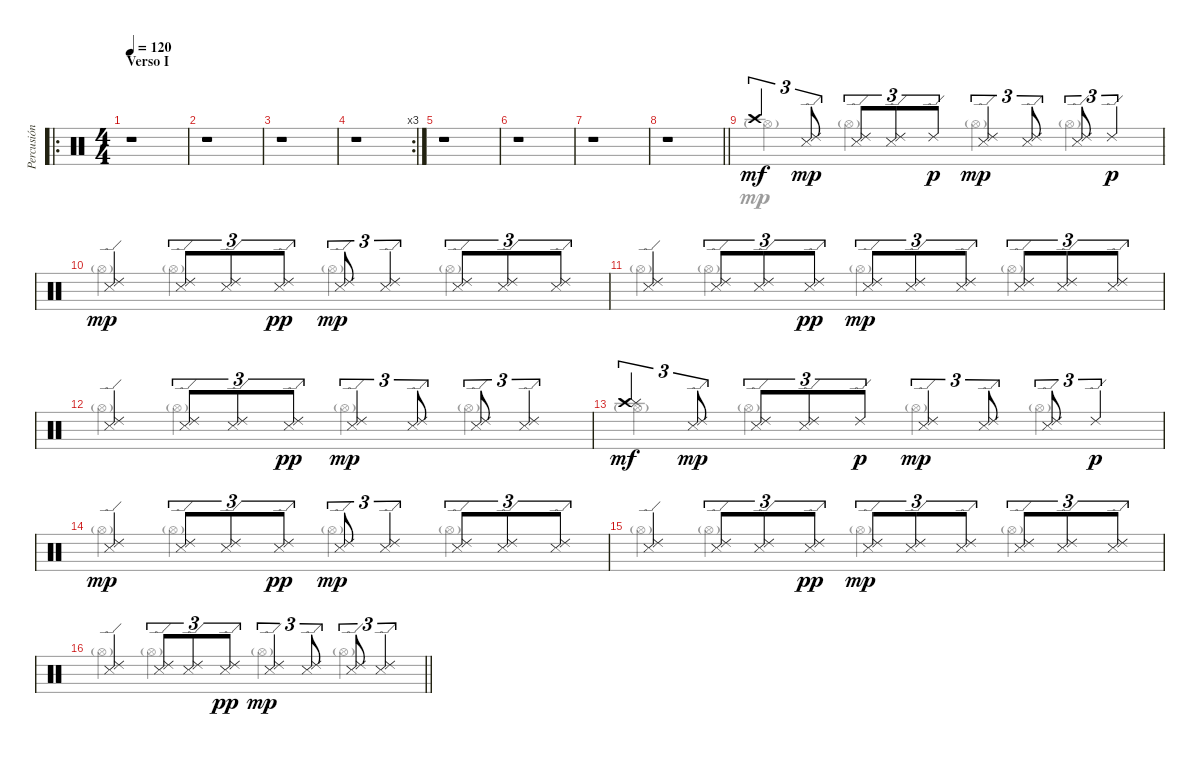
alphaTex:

\track ("Percusión" "Percusión") {instrument percussion}
\staff {score}
\articulation defaults
\voice
\ro
\ts (4 4)
\section ("" "Verso I")
\tempo 120
\clef neutral
\ks c
r.1{dy mf} |
r.1 |
r.1 |
\rc 3
r.1 |
r.1 |
r.1 |
r.1 |
\barLineRight lightlight
r.1 |
"Crash high (hit)".4{tu (3 2)} ("Ride (edge) 2" "Metronome (hit)").8{tu (3 2) dy mp} ("Ride (edge) 2" "Metronome (hit)").8{tu (3 2)} ("Ride (edge) 2" "Metronome (hit)").8{tu (3 2)} "Ride (edge) 2".8{tu (3 2) dy p} ("Ride (edge) 2" "Metronome (hit)").4{tu (3 2) dy mp} ("Ride (edge) 2" "Metronome (hit)").8{tu (3 2)} ("Ride (edge) 2" "Metronome (hit)").8{tu (3 2)} "Ride (edge) 2".4{tu (3 2) dy p} |
("Ride (edge) 2" "Metronome (hit)").4{dy mp} ("Ride (edge) 2" "Metronome (hit)").8{tu (3 2)} ("Ride (edge) 2" "Metronome (hit)").8{tu (3 2)} ("Ride (edge) 2" "Metronome (hit)").8{tu (3 2) dy pp} ("Ride (edge) 2" "Metronome (hit)").8{tu (3 2) dy mp} ("Ride (edge) 2" "Metronome (hit)").4{tu (3 2)} ("Ride (edge) 2" "Metronome (hit)").8{tu (3 2)} ("Ride (edge) 2" "Metronome (hit)").8{tu (3 2)} ("Ride (edge) 2" "Metronome (hit)").8{tu (3 2)} |
("Ride (edge) 2" "Metronome (hit)").4 ("Ride (edge) 2" "Metronome (hit)").8{tu (3 2)} ("Ride (edge) 2" "Metronome (hit)").8{tu (3 2)} ("Ride (edge) 2" "Metronome (hit)").8{tu (3 2) dy pp} ("Ride (edge) 2" "Metronome (hit)").8{tu (3 2) dy mp} ("Ride (edge) 2" "Metronome (hit)").8{tu (3 2)} ("Ride (edge) 2" "Metronome (hit)").8{tu (3 2)} ("Ride (edge) 2" "Metronome (hit)").8{tu (3 2)} ("Ride (edge) 2" "Metronome (hit)").8{tu (3 2)} ("Ride (edge) 2" "Metronome (hit)").8{tu (3 2)} |
("Ride (edge) 2" "Metronome (hit)").4 ("Ride (edge) 2" "Metronome (hit)").8{tu (3 2)} ("Ride (edge) 2" "Metronome (hit)").8{tu (3 2)} ("Ride (edge) 2" "Metronome (hit)").8{tu (3 2) dy pp} ("Ride (edge) 2" "Metronome (hit)").4{tu (3 2) dy mp} ("Ride (edge) 2" "Metronome (hit)").8{tu (3 2)} ("Ride (edge) 2" "Metronome (hit)").8{tu (3 2)} ("Ride (edge) 2" "Metronome (hit)").4{tu (3 2)} |
("Crash high (hit)" "Splash (hit)").4{tu (3 2) dy mf} ("Ride (edge) 2" "Metronome (hit)").8{tu (3 2) dy mp} ("Ride (edge) 2" "Metronome (hit)").8{tu (3 2)} ("Ride (edge) 2" "Metronome (hit)").8{tu (3 2)} "Ride (edge) 2".8{tu (3 2) dy p} ("Ride (edge) 2" "Metronome (hit)").4{tu (3 2) dy mp} ("Ride (edge) 2" "Metronome (hit)").8{tu (3 2)} ("Ride (edge) 2" "Metronome (hit)").8{tu (3 2)} "Ride (edge) 2".4{tu (3 2) dy p} |
("Ride (edge) 2" "Metronome (hit)").4{dy mp} ("Ride (edge) 2" "Metronome (hit)").8{tu (3 2)} ("Ride (edge) 2" "Metronome (hit)").8{tu (3 2)} ("Ride (edge) 2" "Metronome (hit)").8{tu (3 2) dy pp} ("Ride (edge) 2" "Metronome (hit)").8{tu (3 2) dy mp} ("Ride (edge) 2" "Metronome (hit)").4{tu (3 2)} ("Ride (edge) 2" "Metronome (hit)").8{tu (3 2)} ("Ride (edge) 2" "Metronome (hit)").8{tu (3 2)} ("Ride (edge) 2" "Metronome (hit)").8{tu (3 2)} |
("Ride (edge) 2" "Metronome (hit)").4 ("Ride (edge) 2" "Metronome (hit)").8{tu (3 2)} ("Ride (edge) 2" "Metronome (hit)").8{tu (3 2)} ("Ride (edge) 2" "Metronome (hit)").8{tu (3 2) dy pp} ("Ride (edge) 2" "Metronome (hit)").8{tu (3 2) dy mp} ("Ride (edge) 2" "Metronome (hit)").8{tu (3 2)} ("Ride (edge) 2" "Metronome (hit)").8{tu (3 2)} ("Ride (edge) 2" "Metronome (hit)").8{tu (3 2)} ("Ride (edge) 2" "Metronome (hit)").8{tu (3 2)} ("Ride (edge) 2" "Metronome (hit)").8{tu (3 2)} |
\barLineRight lightlight
("Ride (edge) 2" "Metronome (hit)").4 ("Ride (edge) 2" "Metronome (hit)").8{tu (3 2)} ("Ride (edge) 2" "Metronome (hit)").8{tu (3 2)} ("Ride (edge) 2" "Metronome (hit)").8{tu (3 2) dy pp} ("Ride (edge) 2" "Metronome (hit)").4{tu (3 2) dy mp} ("Ride (edge) 2" "Metronome (hit)").8{tu (3 2)} ("Ride (edge) 2" "Metronome (hit)").8{tu (3 2)} ("Ride (edge) 2" "Metronome (hit)").4{tu (3 2)}
\voice
\clef neutral
\ottava regular
\simile none
\ks c
|
|
|
|
|
|
|
\barLineRight lightlight
|
"Hi-Hat (open)"{g}.4 "Hi-Hat (open)"{g}.4 "Hi-Hat (open)"{g}.4 "Hi-Hat (open)"{g}.4 |
"Hi-Hat (open)"{g}.4 "Hi-Hat (open)"{g}.4 "Hi-Hat (open)"{g}.4 "Hi-Hat (open)"{g}.4 |
"Hi-Hat (open)"{g}.4 "Hi-Hat (open)"{g}.4 "Hi-Hat (open)"{g}.4 "Hi-Hat (open)"{g}.4 |
"Hi-Hat (open)"{g}.4 "Hi-Hat (open)"{g}.4 "Hi-Hat (open)"{g}.4 "Hi-Hat (open)"{g}.4 |
"Hi-Hat (open)"{g}.4 "Hi-Hat (open)"{g}.4 "Hi-Hat (open)"{g}.4 "Hi-Hat (open)"{g}.4 |
"Hi-Hat (open)"{g}.4 "Hi-Hat (open)"{g}.4 "Hi-Hat (open)"{g}.4 "Hi-Hat (open)"{g}.4 |
"Hi-Hat (open)"{g}.4 "Hi-Hat (open)"{g}.4 "Hi-Hat (open)"{g}.4 "Hi-Hat (open)"{g}.4 |
\barLineRight lightlight "Hi-Hat (open)"{g}.4 "Hi-Hat (open)"{g}.4 "Hi-Hat (open)"{g}.4 "Hi-Hat (open)"{g}.4
